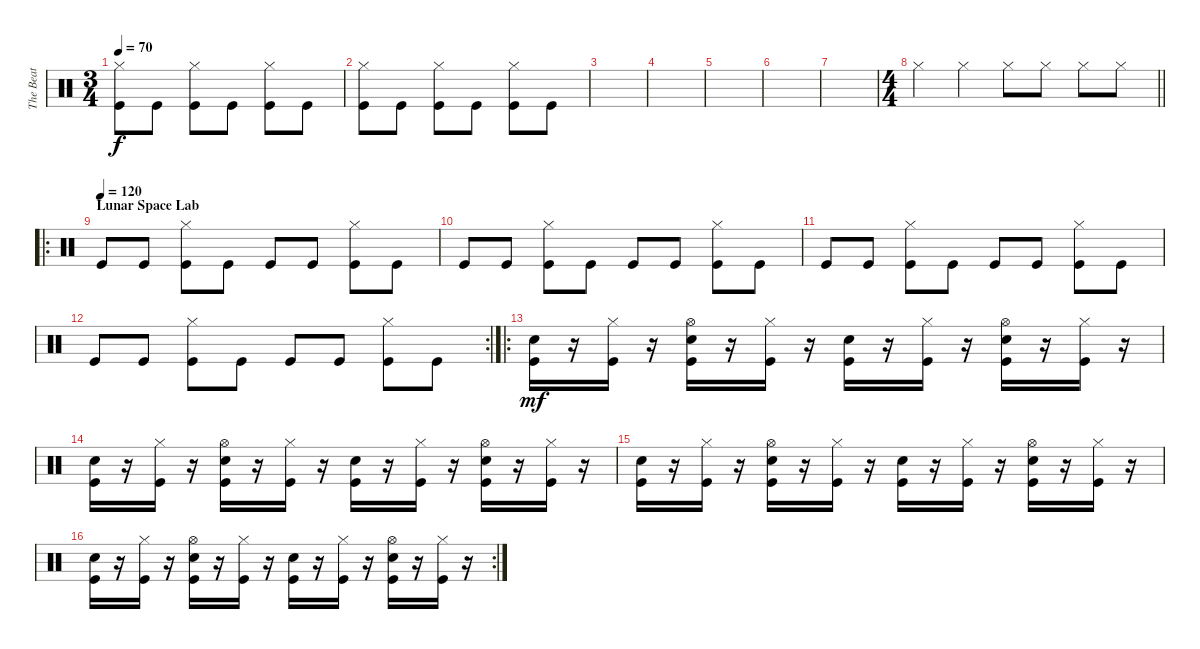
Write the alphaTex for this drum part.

\track ("The Beat" "The Beat") {instrument percussion}
\staff {score}
\articulation defaults
\ts (3 4)
\tempo 70
\clef neutral
\ks c
("Kick (hit)" "Hi-Hat (closed)").8{dy f} "Kick (hit)".8 ("Kick (hit)" "Hi-Hat (closed)").8 "Kick (hit)".8 ("Kick (hit)" "Hi-Hat (closed)").8 "Kick (hit)".8 |
("Kick (hit)" "Hi-Hat (closed)").8 "Kick (hit)".8 ("Kick (hit)" "Hi-Hat (closed)").8 "Kick (hit)".8 ("Kick (hit)" "Hi-Hat (closed)").8 "Kick (hit)".8 |
|
|
|
|
|
\ts (4 4)
\barLineRight lightlight "Hi-Hat (closed)".4 "Hi-Hat (closed)".4 "Hi-Hat (closed)".8 "Hi-Hat (closed)".8 "Hi-Hat (closed)".8 "Hi-Hat (closed)".8
|
\ro
\section ("" "Lunar Space Lab")
\tempo (120)
"Kick (hit)".8 "Kick (hit)".8 ("Hi-Hat (closed)" "Kick (hit)").8 "Kick (hit)".8 "Kick (hit)".8 "Kick (hit)".8 ("Hi-Hat (closed)" "Kick (hit)").8 "Kick (hit)".8 |
"Kick (hit)".8 "Kick (hit)".8 ("Hi-Hat (closed)" "Kick (hit)").8 "Kick (hit)".8 "Kick (hit)".8 "Kick (hit)".8 ("Hi-Hat (closed)" "Kick (hit)").8 "Kick (hit)".8 |
"Kick (hit)".8 "Kick (hit)".8 ("Hi-Hat (closed)" "Kick (hit)").8 "Kick (hit)".8 "Kick (hit)".8 "Kick (hit)".8 ("Hi-Hat (closed)" "Kick (hit)").8 "Kick (hit)".8 |
\rc 2 "Kick (hit)".8 "Kick (hit)".8
("Hi-Hat (closed)" "Kick (hit)").8 "Kick (hit)".8 "Kick (hit)".8 "Kick (hit)".8 ("Hi-Hat (closed)" "Kick (hit)").8 "Kick (hit)".8 |
\ro
("Kick (hit)" "Electric Snare (hit)").16{dy mf} r.16 ("Kick (hit)" "Hi-Hat (closed)").16 r.16 ("Kick (hit)" "Hi-Hat (open)" "Electric Snare (hit)").16 r.16 ("Kick (hit)" "Hi-Hat (closed)").16 r.16 ("Kick (hit)" "Electric Snare (hit)").16 r.16 ("Kick (hit)" "Hi-Hat (closed)").16 r.16 ("Kick (hit)" "Hi-Hat (open)" "Electric Snare (hit)").16 r.16 ("Kick (hit)" "Hi-Hat (closed)").16 r.16 |
("Kick (hit)" "Electric Snare (hit)").16 r.16 ("Kick (hit)" "Hi-Hat (closed)").16 r.16 ("Kick (hit)" "Hi-Hat (open)" "Electric Snare (hit)").16 r.16 ("Kick (hit)" "Hi-Hat (closed)").16 r.16 ("Kick (hit)" "Electric Snare (hit)").16 r.16 ("Kick (hit)" "Hi-Hat (closed)").16 r.16 ("Kick (hit)" "Hi-Hat (open)" "Electric Snare (hit)").16 r.16 ("Kick (hit)" "Hi-Hat (closed)").16 r.16 |
("Kick (hit)" "Electric Snare (hit)").16 r.16 ("Kick (hit)" "Hi-Hat (closed)").16 r.16 ("Kick (hit)" "Hi-Hat (open)" "Electric Snare (hit)").16 r.16 ("Kick (hit)" "Hi-Hat (closed)").16 r.16 ("Kick (hit)" "Electric Snare (hit)").16 r.16 ("Kick (hit)" "Hi-Hat (closed)").16 r.16 ("Kick (hit)" "Hi-Hat (open)" "Electric Snare (hit)").16 r.16 ("Kick (hit)" "Hi-Hat (closed)").16 r.16 |
\rc 2
("Kick (hit)" "Electric Snare (hit)").16 r.16 ("Kick (hit)" "Hi-Hat (closed)").16 r.16 ("Kick (hit)" "Hi-Hat (open)" "Electric Snare (hit)").16 r.16 ("Kick (hit)" "Hi-Hat (closed)").16 r.16 ("Kick (hit)" "Electric Snare (hit)").16 r.16 ("Kick (hit)" "Hi-Hat (closed)").16 r.16 ("Kick (hit)" "Hi-Hat (open)" "Electric Snare (hit)").16 r.16 ("Kick (hit)" "Hi-Hat (closed)").16 r.16
